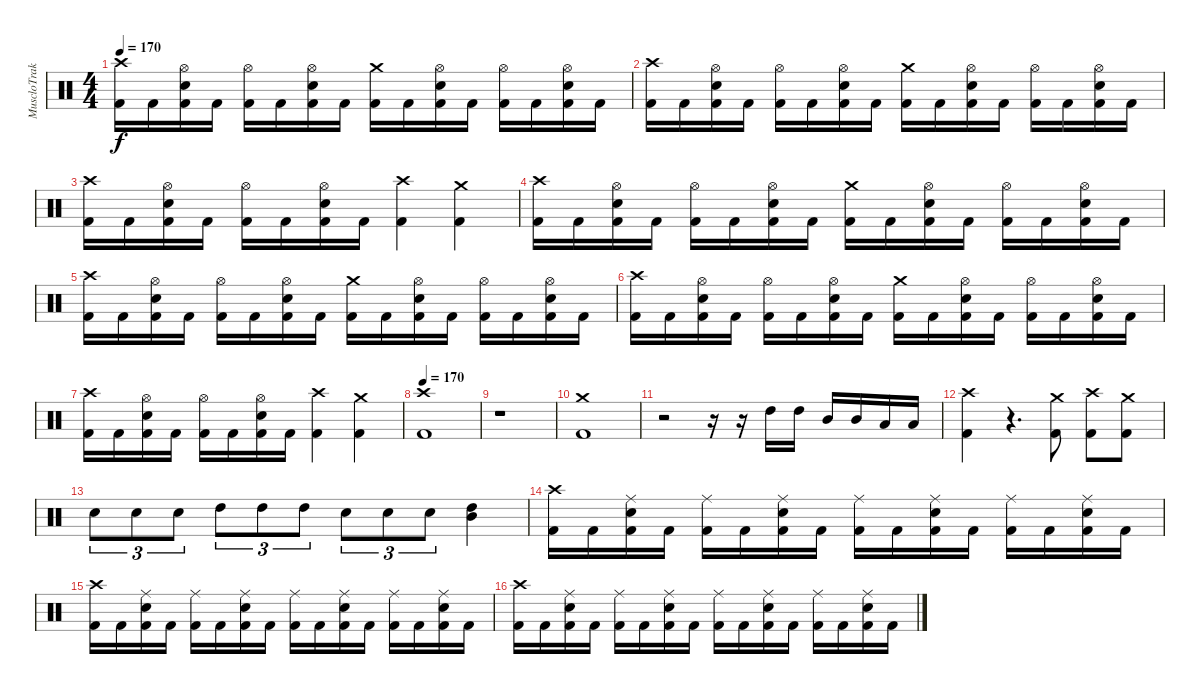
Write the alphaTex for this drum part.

\track ("MuscloTraktor" "MuscloTrak") {instrument percussion}
\staff {score}
\articulation defaults
\ts (4 4)
\tempo 170
\clef neutral
\ks c
("Kick (hit) 2" "Crash high (hit)").16{dy f} "Kick (hit) 2".16 ("Kick (hit) 2" "Electric Snare (hit)" "Hi-Hat (open)").16 "Kick (hit) 2".16 ("Kick (hit) 2" "Hi-Hat (open)").16 "Kick (hit) 2".16 ("Kick (hit) 2" "Electric Snare (hit)" "Hi-Hat (open)").16 "Kick (hit) 2".16 ("Kick (hit) 2" "Crash medium (hit)").16 "Kick (hit) 2".16 ("Kick (hit) 2" "Electric Snare (hit)" "Hi-Hat (open)").16 "Kick (hit) 2".16 ("Kick (hit) 2" "Hi-Hat (open)").16 "Kick (hit) 2".16 ("Kick (hit) 2" "Electric Snare (hit)" "Hi-Hat (open)").16 "Kick (hit) 2".16 |
("Kick (hit) 2" "Crash high (hit)").16 "Kick (hit) 2".16 ("Kick (hit) 2" "Electric Snare (hit)" "Hi-Hat (open)").16 "Kick (hit) 2".16 ("Kick (hit) 2" "Hi-Hat (open)").16 "Kick (hit) 2".16 ("Kick (hit) 2" "Electric Snare (hit)" "Hi-Hat (open)").16 "Kick (hit) 2".16 ("Kick (hit) 2" "Crash medium (hit)").16 "Kick (hit) 2".16 ("Kick (hit) 2" "Electric Snare (hit)" "Hi-Hat (open)").16 "Kick (hit) 2".16 ("Kick (hit) 2" "Hi-Hat (open)").16 "Kick (hit) 2".16 ("Kick (hit) 2" "Electric Snare (hit)" "Hi-Hat (open)").16 "Kick (hit) 2".16 |
("Kick (hit) 2" "Crash high (hit)").16 "Kick (hit) 2".16 ("Kick (hit) 2" "Electric Snare (hit)" "Hi-Hat (open)").16 "Kick (hit) 2".16 ("Kick (hit) 2" "Hi-Hat (open)").16 "Kick (hit) 2".16 ("Kick (hit) 2" "Electric Snare (hit)" "Hi-Hat (open)").16 "Kick (hit) 2".16 ("Kick (hit) 2" "Crash high (hit)").4 ("Kick (hit) 2" "Crash medium (hit)").4 |
("Kick (hit) 2" "Crash high (hit)").16 "Kick (hit) 2".16 ("Kick (hit) 2" "Electric Snare (hit)" "Hi-Hat (open)").16 "Kick (hit) 2".16 ("Kick (hit) 2" "Hi-Hat (open)").16 "Kick (hit) 2".16 ("Kick (hit) 2" "Electric Snare (hit)" "Hi-Hat (open)").16 "Kick (hit) 2".16 ("Kick (hit) 2" "Crash medium (hit)").16 "Kick (hit) 2".16 ("Kick (hit) 2" "Electric Snare (hit)" "Hi-Hat (open)").16 "Kick (hit) 2".16 ("Kick (hit) 2" "Hi-Hat (open)").16 "Kick (hit) 2".16 ("Kick (hit) 2" "Electric Snare (hit)" "Hi-Hat (open)").16 "Kick (hit) 2".16 |
("Kick (hit) 2" "Crash high (hit)").16 "Kick (hit) 2".16 ("Kick (hit) 2" "Electric Snare (hit)" "Hi-Hat (open)").16 "Kick (hit) 2".16 ("Kick (hit) 2" "Hi-Hat (open)").16 "Kick (hit) 2".16 ("Kick (hit) 2" "Electric Snare (hit)" "Hi-Hat (open)").16 "Kick (hit) 2".16 ("Kick (hit) 2" "Crash medium (hit)").16 "Kick (hit) 2".16 ("Kick (hit) 2" "Electric Snare (hit)" "Hi-Hat (open)").16 "Kick (hit) 2".16 ("Kick (hit) 2" "Hi-Hat (open)").16 "Kick (hit) 2".16 ("Kick (hit) 2" "Electric Snare (hit)" "Hi-Hat (open)").16 "Kick (hit) 2".16 |
("Kick (hit) 2" "Crash high (hit)").16 "Kick (hit) 2".16 ("Kick (hit) 2" "Electric Snare (hit)" "Hi-Hat (open)").16 "Kick (hit) 2".16 ("Kick (hit) 2" "Hi-Hat (open)").16 "Kick (hit) 2".16 ("Kick (hit) 2" "Electric Snare (hit)" "Hi-Hat (open)").16 "Kick (hit) 2".16 ("Kick (hit) 2" "Crash medium (hit)").16 "Kick (hit) 2".16 ("Kick (hit) 2" "Electric Snare (hit)" "Hi-Hat (open)").16 "Kick (hit) 2".16 ("Kick (hit) 2" "Hi-Hat (open)").16 "Kick (hit) 2".16 ("Kick (hit) 2" "Electric Snare (hit)" "Hi-Hat (open)").16 "Kick (hit) 2".16 |
("Kick (hit) 2" "Crash high (hit)").16 "Kick (hit) 2".16 ("Kick (hit) 2" "Electric Snare (hit)" "Hi-Hat (open)").16 "Kick (hit) 2".16 ("Kick (hit) 2" "Hi-Hat (open)").16 "Kick (hit) 2".16 ("Kick (hit) 2" "Electric Snare (hit)" "Hi-Hat (open)").16 "Kick (hit) 2".16 ("Kick (hit) 2" "Crash high (hit)").4 ("Kick (hit) 2" "Crash medium (hit)").4 |
\tempo 170
("Kick (hit) 2" "Crash high (hit)").1 |
r.1 |
("Crash medium (hit)" "Kick (hit) 2").1 |
r.2 r.16 r.16 "High Tom (hit)".16 "High Tom (hit)".16 "Mid Tom (hit)".16 "Mid Tom (hit)".16 "Low Tom (hit)".16 "Low Tom (hit)".16 |
("Kick (hit) 2" "Crash high (hit)").4 r.4{d} ("Kick (hit) 2" "Crash medium (hit)").8 ("Kick (hit) 2" "Crash high (hit)").8 ("Kick (hit) 2" "Crash medium (hit)").8 |
"Electric Snare (hit)".8{tu (3 2)} "Electric Snare (hit)".8{tu (3 2)} "Electric Snare (hit)".8{tu (3 2)} "High Tom (hit)".8{tu (3 2)} "High Tom (hit)".8{tu (3 2)} "High Tom (hit)".8{tu (3 2)} "Electric Snare (hit)".8{tu (3 2)} "Electric Snare (hit)".8{tu (3 2)} "Electric Snare (hit)".8{tu (3 2)} ("Mid Tom (hit)" "High Tom (hit)").4 |
("Kick (hit) 2" "Crash high (hit)").16 "Kick (hit) 2".16 ("Kick (hit) 2" "Electric Snare (hit)" "Ride (middle)").16 "Kick (hit) 2".16 ("Kick (hit) 2" "Ride (middle)").16 "Kick (hit) 2".16 ("Kick (hit) 2" "Electric Snare (hit)" "Ride (middle)").16 "Kick (hit) 2".16 ("Kick (hit) 2" "Ride (middle)").16 "Kick (hit) 2".16 ("Kick (hit) 2" "Electric Snare (hit)" "Ride (middle)").16 "Kick (hit) 2".16 ("Kick (hit) 2" "Ride (middle)").16 "Kick (hit) 2".16 ("Kick (hit) 2" "Electric Snare (hit)" "Ride (middle)").16 "Kick (hit) 2".16 |
("Kick (hit) 2" "Crash high (hit)").16 "Kick (hit) 2".16 ("Kick (hit) 2" "Electric Snare (hit)" "Ride (middle)").16 "Kick (hit) 2".16 ("Kick (hit) 2" "Ride (middle)").16 "Kick (hit) 2".16 ("Kick (hit) 2" "Electric Snare (hit)" "Ride (middle)").16 "Kick (hit) 2".16 ("Kick (hit) 2" "Ride (middle)").16 "Kick (hit) 2".16 ("Kick (hit) 2" "Electric Snare (hit)" "Ride (middle)").16 "Kick (hit) 2".16 ("Kick (hit) 2" "Ride (middle)").16 "Kick (hit) 2".16 ("Kick (hit) 2" "Electric Snare (hit)" "Ride (middle)").16 "Kick (hit) 2".16 |
("Kick (hit) 2" "Crash high (hit)").16 "Kick (hit) 2".16 ("Kick (hit) 2" "Electric Snare (hit)" "Ride (middle)").16 "Kick (hit) 2".16 ("Kick (hit) 2" "Ride (middle)").16 "Kick (hit) 2".16 ("Kick (hit) 2" "Electric Snare (hit)" "Ride (middle)").16 "Kick (hit) 2".16 ("Kick (hit) 2" "Ride (middle)").16 "Kick (hit) 2".16 ("Kick (hit) 2" "Electric Snare (hit)" "Ride (middle)").16 "Kick (hit) 2".16 ("Kick (hit) 2" "Ride (middle)").16 "Kick (hit) 2".16 ("Kick (hit) 2" "Electric Snare (hit)" "Ride (middle)").16 "Kick (hit) 2".16
